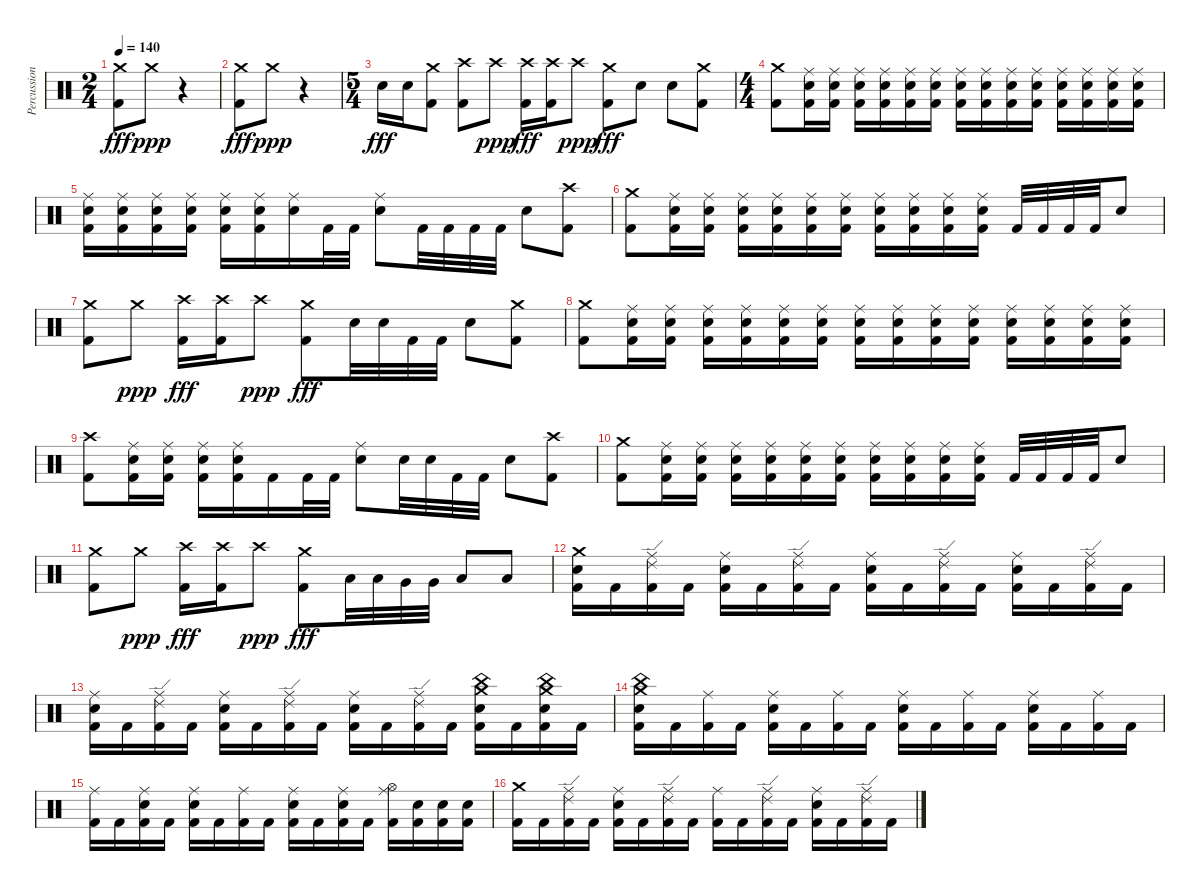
\track ("Percussion" "Percussion") {instrument percussion}
\staff {score}
\articulation defaults
\ts (2 4)
\tempo 140
\clef neutral
\ks c
("Crash medium (hit)" "Kick (hit) 2").8{dy fff} "Crash medium (hit)".8{dy ppp} r.4 |
("Crash medium (hit)" "Kick (hit) 2").8{dy fff} "Crash medium (hit)".8{dy ppp} r.4 |
\ts (5 4)
"Electric Snare (hit)".16{dy fff} "Electric Snare (hit)".16 ("Crash medium (hit)" "Kick (hit) 2").8 ("Crash high (hit)" "Kick (hit) 2").8 "Crash high (hit)".8{dy ppp} ("Crash high (hit)" "Kick (hit) 2").16{dy fff} ("Crash high (hit)" "Kick (hit) 2").16 "Crash high (hit)".8{dy ppp} ("Crash medium (hit)" "Kick (hit) 2").8{dy fff} "Electric Snare (hit)".8 "Electric Snare (hit)".8 ("Crash medium (hit)" "Kick (hit) 2").8 |
\ts (4 4)
("Crash medium (hit)" "Kick (hit) 2").8 ("Ride (middle)" "Electric Snare (hit)" "Kick (hit) 2").16 ("Ride (middle)" "Electric Snare (hit)" "Kick (hit) 2").16 ("Ride (middle)" "Electric Snare (hit)" "Kick (hit) 2").16 ("Ride (middle)" "Electric Snare (hit)" "Kick (hit) 2").16 ("Ride (middle)" "Electric Snare (hit)" "Kick (hit) 2").16 ("Ride (middle)" "Electric Snare (hit)" "Kick (hit) 2").16 ("Ride (middle)" "Electric Snare (hit)" "Kick (hit) 2").16 ("Ride (middle)" "Electric Snare (hit)" "Kick (hit) 2").16 ("Ride (middle)" "Electric Snare (hit)" "Kick (hit) 2").16 ("Ride (middle)" "Electric Snare (hit)" "Kick (hit) 2").16 ("Ride (middle)" "Electric Snare (hit)" "Kick (hit) 2").16 ("Ride (middle)" "Electric Snare (hit)" "Kick (hit) 2").16 ("Ride (middle)" "Electric Snare (hit)" "Kick (hit) 2").16 ("Ride (middle)" "Electric Snare (hit)" "Kick (hit) 2").16 |
("Ride (middle)" "Electric Snare (hit)" "Kick (hit) 2").16 ("Ride (middle)" "Electric Snare (hit)" "Kick (hit) 2").16 ("Ride (middle)" "Electric Snare (hit)" "Kick (hit) 2").16 ("Ride (middle)" "Electric Snare (hit)" "Kick (hit) 2").16 ("Ride (middle)" "Electric Snare (hit)" "Kick (hit) 2").16 ("Ride (middle)" "Electric Snare (hit)" "Kick (hit) 2").16 ("Ride (middle)" "Electric Snare (hit)").16 "Kick (hit) 2".32 "Kick (hit) 2".32 ("Ride (middle)" "Electric Snare (hit)").8 "Kick (hit) 2".32 "Kick (hit) 2".32 "Kick (hit) 2".32 "Kick (hit) 2".32 "Electric Snare (hit)".8 ("Crash high (hit)" "Kick (hit) 2").8 |
("Crash medium (hit)" "Kick (hit) 2").8 ("Ride (middle)" "Electric Snare (hit)" "Kick (hit) 2").16 ("Ride (middle)" "Electric Snare (hit)" "Kick (hit) 2").16 ("Ride (middle)" "Electric Snare (hit)" "Kick (hit) 2").16 ("Ride (middle)" "Electric Snare (hit)" "Kick (hit) 2").16 ("Ride (middle)" "Electric Snare (hit)" "Kick (hit) 2").16 ("Ride (middle)" "Electric Snare (hit)" "Kick (hit) 2").16 ("Ride (middle)" "Electric Snare (hit)" "Kick (hit) 2").16 ("Ride (middle)" "Electric Snare (hit)" "Kick (hit) 2").16 ("Ride (middle)" "Electric Snare (hit)" "Kick (hit) 2").16 ("Ride (middle)" "Electric Snare (hit)" "Kick (hit) 2").16 "Kick (hit) 2".32 "Kick (hit) 2".32 "Kick (hit) 2".32 "Kick (hit) 2".32 "Electric Snare (hit)".8 |
("Crash medium (hit)" "Kick (hit) 2").8 "Crash medium (hit)".8{dy ppp} ("Crash high (hit)" "Kick (hit) 2").16{dy fff} ("Crash high (hit)" "Kick (hit) 2").16 "Crash high (hit)".8{dy ppp} ("Crash medium (hit)" "Kick (hit) 2").8{dy fff} "Electric Snare (hit)".32 "Electric Snare (hit)".32 "Kick (hit) 2".32 "Kick (hit) 2".32 "Electric Snare (hit)".8 ("Crash medium (hit)" "Kick (hit) 2").8 |
("Crash medium (hit)" "Kick (hit) 2").8 ("Ride (middle)" "Electric Snare (hit)" "Kick (hit) 2").16 ("Ride (middle)" "Electric Snare (hit)" "Kick (hit) 2").16 ("Ride (middle)" "Electric Snare (hit)" "Kick (hit) 2").16 ("Ride (middle)" "Electric Snare (hit)" "Kick (hit) 2").16 ("Ride (middle)" "Electric Snare (hit)" "Kick (hit) 2").16 ("Ride (middle)" "Electric Snare (hit)" "Kick (hit) 2").16 ("Ride (middle)" "Electric Snare (hit)" "Kick (hit) 2").16 ("Ride (middle)" "Electric Snare (hit)" "Kick (hit) 2").16 ("Ride (middle)" "Electric Snare (hit)" "Kick (hit) 2").16 ("Ride (middle)" "Electric Snare (hit)" "Kick (hit) 2").16 ("Ride (middle)" "Electric Snare (hit)" "Kick (hit) 2").16 ("Ride (middle)" "Electric Snare (hit)" "Kick (hit) 2").16 ("Ride (middle)" "Electric Snare (hit)" "Kick (hit) 2").16 ("Ride (middle)" "Electric Snare (hit)" "Kick (hit) 2").16 |
("Crash high (hit)" "Kick (hit) 2").8 ("Ride (middle)" "Electric Snare (hit)" "Kick (hit) 2").16 ("Ride (middle)" "Electric Snare (hit)" "Kick (hit) 2").16 ("Ride (middle)" "Electric Snare (hit)" "Kick (hit) 2").16 ("Ride (middle)" "Electric Snare (hit)" "Kick (hit) 2").16 "Kick (hit) 2".16 "Kick (hit) 2".32 "Kick (hit) 2".32 ("Ride (middle)" "Electric Snare (hit)").8 "Electric Snare (hit)".32 "Electric Snare (hit)".32 "Kick (hit) 2".32 "Kick (hit) 2".32 "Electric Snare (hit)".8 ("Crash high (hit)" "Kick (hit) 2").8 |
("Crash medium (hit)" "Kick (hit) 2").8 ("Ride (middle)" "Electric Snare (hit)" "Kick (hit) 2").16 ("Ride (middle)" "Electric Snare (hit)" "Kick (hit) 2").16 ("Ride (middle)" "Electric Snare (hit)" "Kick (hit) 2").16 ("Ride (middle)" "Electric Snare (hit)" "Kick (hit) 2").16 ("Ride (middle)" "Electric Snare (hit)" "Kick (hit) 2").16 ("Ride (middle)" "Electric Snare (hit)" "Kick (hit) 2").16 ("Ride (middle)" "Electric Snare (hit)" "Kick (hit) 2").16 ("Ride (middle)" "Electric Snare (hit)" "Kick (hit) 2").16 ("Ride (middle)" "Electric Snare (hit)" "Kick (hit) 2").16 ("Ride (middle)" "Electric Snare (hit)" "Kick (hit) 2").16 "Kick (hit) 2".32 "Kick (hit) 2".32 "Kick (hit) 2".32 "Kick (hit) 2".32 "Electric Snare (hit)".8 |
("Crash medium (hit)" "Kick (hit) 2").8 "Crash medium (hit)".8{dy ppp} ("Crash high (hit)" "Kick (hit) 2").16{dy fff} ("Crash high (hit)" "Kick (hit) 2").16 "Crash high (hit)".8{dy ppp} ("Crash medium (hit)" "Kick (hit) 2").8{dy fff} "Low Tom (hit)".32 "Low Tom (hit)".32 "Very Low Tom (hit)".32 "Very Low Tom (hit)".32 "Low Floor Tom (hit)".8 "Low Floor Tom (hit)".8 |
("Crash medium (hit)" "Electric Snare (hit)" "Kick (hit) 2").16 "Kick (hit) 2".16 ("Ride (edge) 2" "Ride (middle)" "Kick (hit) 2").16 "Kick (hit) 2".16 ("Ride (middle)" "Electric Snare (hit)" "Kick (hit) 2").16 "Kick (hit) 2".16 ("Ride (edge) 2" "Ride (middle)" "Kick (hit) 2").16 "Kick (hit) 2".16 ("Ride (middle)" "Electric Snare (hit)" "Kick (hit) 2").16 "Kick (hit) 2".16 ("Ride (edge) 2" "Ride (middle)" "Kick (hit) 2").16 "Kick (hit) 2".16 ("Ride (middle)" "Electric Snare (hit)" "Kick (hit) 2").16 "Kick (hit) 2".16 ("Ride (edge) 2" "Ride (middle)" "Kick (hit) 2").16 "Kick (hit) 2".16 |
("Ride (middle)" "Electric Snare (hit)" "Kick (hit) 2").16 "Kick (hit) 2".16 ("Ride (edge) 2" "Ride (middle)" "Kick (hit) 2").16 "Kick (hit) 2".16 ("Ride (middle)" "Electric Snare (hit)" "Kick (hit) 2").16 "Kick (hit) 2".16 ("Ride (edge) 2" "Ride (middle)" "Kick (hit) 2").16 "Kick (hit) 2".16 ("Ride (middle)" "Electric Snare (hit)" "Kick (hit) 2").16 "Kick (hit) 2".16 ("Ride (edge) 2" "Ride (middle)" "Kick (hit) 2").16 "Kick (hit) 2".16 ("China (hit)" "Crash medium (hit)" "Electric Snare (hit)" "Kick (hit) 2").16 "Kick (hit) 2".16 ("China (hit)" "Crash medium (hit)" "Electric Snare (hit)" "Kick (hit) 2").16 "Kick (hit) 2".16 |
("China (hit)" "Crash medium (hit)" "Electric Snare (hit)" "Kick (hit) 2").16 "Kick (hit) 2".16 ("Ride (middle)" "Kick (hit) 2").16 "Kick (hit) 2".16 ("Ride (middle)" "Electric Snare (hit)" "Kick (hit) 2").16 "Kick (hit) 2".16 ("Ride (middle)" "Kick (hit) 2").16 "Kick (hit) 2".16 ("Ride (middle)" "Electric Snare (hit)" "Kick (hit) 2").16 "Kick (hit) 2".16 ("Ride (middle)" "Kick (hit) 2").16 "Kick (hit) 2".16 ("Ride (middle)" "Electric Snare (hit)" "Kick (hit) 2").16 "Kick (hit) 2".16 ("Ride (middle)" "Kick (hit) 2").16 "Kick (hit) 2".16 |
("Ride (middle)" "Kick (hit) 2").16 "Kick (hit) 2".16 ("Ride (middle)" "Electric Snare (hit)" "Kick (hit) 2").16 "Kick (hit) 2".16 ("Ride (middle)" "Electric Snare (hit)" "Kick (hit) 2").16 "Kick (hit) 2".16 ("Ride (middle)" "Kick (hit) 2").16 "Kick (hit) 2".16 ("Ride (middle)" "Electric Snare (hit)" "Kick (hit) 2").16 "Kick (hit) 2".16 ("Ride (middle)" "Electric Snare (hit)" "Kick (hit) 2").16 "Kick (hit) 2".16 ("Hi-Hat (open)" "Ride (middle)" "Kick (hit) 2").16 ("Electric Snare (hit)" "Kick (hit) 2").16 ("Electric Snare (hit)" "Kick (hit) 2").16 ("Electric Snare (hit)" "Kick (hit) 2").16 |
("Crash medium (hit)" "Kick (hit) 2").16 "Kick (hit) 2".16 ("Ride (edge) 2" "Ride (middle)" "Kick (hit) 2").16 "Kick (hit) 2".16 ("Ride (middle)" "Electric Snare (hit)" "Kick (hit) 2").16 "Kick (hit) 2".16 ("Ride (edge) 2" "Ride (middle)" "Kick (hit) 2").16 "Kick (hit) 2".16 ("Ride (middle)" "Kick (hit) 2").16 "Kick (hit) 2".16 ("Ride (edge) 2" "Ride (middle)" "Kick (hit) 2").16 "Kick (hit) 2".16 ("Ride (middle)" "Electric Snare (hit)" "Kick (hit) 2").16 "Kick (hit) 2".16 ("Ride (edge) 2" "Ride (middle)" "Kick (hit) 2").16 "Kick (hit) 2".16
